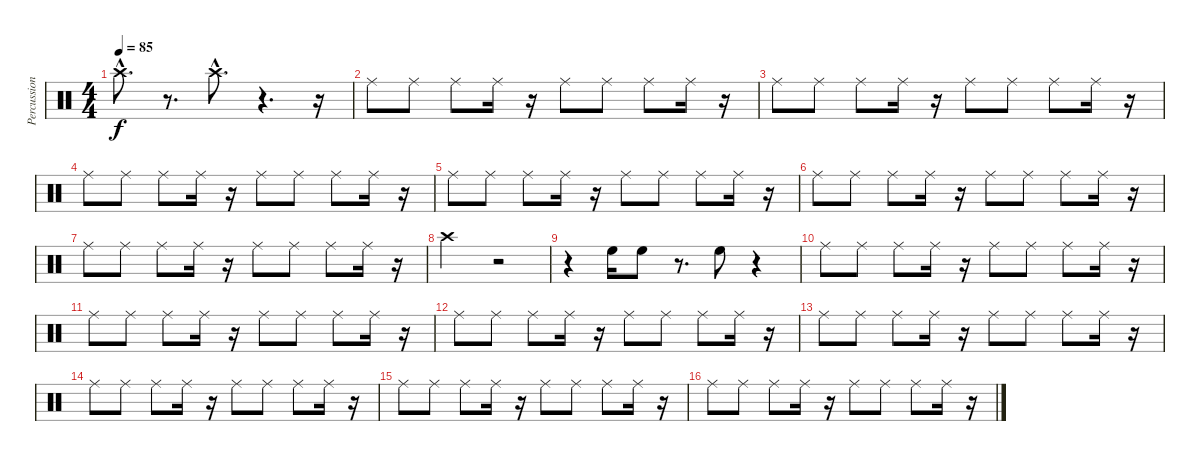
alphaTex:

\track ("Percussion" "Percussion") {instrument percussion}
\staff {score}
\articulation defaults
\ts (4 4)
\tempo 85
\clef neutral
\ks c "Crash high (hit)"{hac}.8{d dy f}
r.8{d} "Crash high (hit)"{hac}.8{d} r.4{d} r.16 |
"Ride (middle)".8 "Ride (middle)".8 "Ride (middle)".8 "Ride (middle)".16 r.16 "Ride (middle)".8 "Ride (middle)".8 "Ride (middle)".8 "Ride (middle)".16 r.16 |
"Ride (middle)".8 "Ride (middle)".8 "Ride (middle)".8 "Ride (middle)".16 r.16 "Ride (middle)".8 "Ride (middle)".8 "Ride (middle)".8 "Ride (middle)".16 r.16 |
"Ride (middle)".8 "Ride (middle)".8 "Ride (middle)".8 "Ride (middle)".16 r.16 "Ride (middle)".8 "Ride (middle)".8 "Ride (middle)".8 "Ride (middle)".16 r.16 |
"Ride (middle)".8 "Ride (middle)".8 "Ride (middle)".8 "Ride (middle)".16 r.16 "Ride (middle)".8 "Ride (middle)".8 "Ride (middle)".8 "Ride (middle)".16 r.16 |
"Ride (middle)".8 "Ride (middle)".8 "Ride (middle)".8 "Ride (middle)".16 r.16 "Ride (middle)".8 "Ride (middle)".8 "Ride (middle)".8 "Ride (middle)".16 r.16 |
"Ride (middle)".8 "Ride (middle)".8 "Ride (middle)".8 "Ride (middle)".16 r.16 "Ride (middle)".8 "Ride (middle)".8 "Ride (middle)".8 "Ride (middle)".16 r.16 |
"Crash high (hit)".2 r.2 |
r.4 "High Floor Tom (hit)".16 "High Floor Tom (hit)".8 r.8{d} "High Floor Tom (hit)".8 r.4 |
"Ride (middle)".8 "Ride (middle)".8 "Ride (middle)".8 "Ride (middle)".16 r.16 "Ride (middle)".8 "Ride (middle)".8 "Ride (middle)".8 "Ride (middle)".16 r.16 |
"Ride (middle)".8 "Ride (middle)".8 "Ride (middle)".8 "Ride (middle)".16 r.16 "Ride (middle)".8 "Ride (middle)".8 "Ride (middle)".8 "Ride (middle)".16 r.16 |
"Ride (middle)".8 "Ride (middle)".8 "Ride (middle)".8 "Ride (middle)".16 r.16 "Ride (middle)".8 "Ride (middle)".8 "Ride (middle)".8 "Ride (middle)".16 r.16 |
"Ride (middle)".8 "Ride (middle)".8 "Ride (middle)".8 "Ride (middle)".16 r.16 "Ride (middle)".8 "Ride (middle)".8 "Ride (middle)".8 "Ride (middle)".16 r.16 |
"Ride (middle)".8 "Ride (middle)".8 "Ride (middle)".8 "Ride (middle)".16 r.16 "Ride (middle)".8 "Ride (middle)".8 "Ride (middle)".8 "Ride (middle)".16 r.16 |
"Ride (middle)".8 "Ride (middle)".8 "Ride (middle)".8 "Ride (middle)".16 r.16 "Ride (middle)".8 "Ride (middle)".8 "Ride (middle)".8 "Ride (middle)".16 r.16 |
"Ride (middle)".8 "Ride (middle)".8 "Ride (middle)".8 "Ride (middle)".16 r.16 "Ride (middle)".8 "Ride (middle)".8 "Ride (middle)".8 "Ride (middle)".16 r.16
